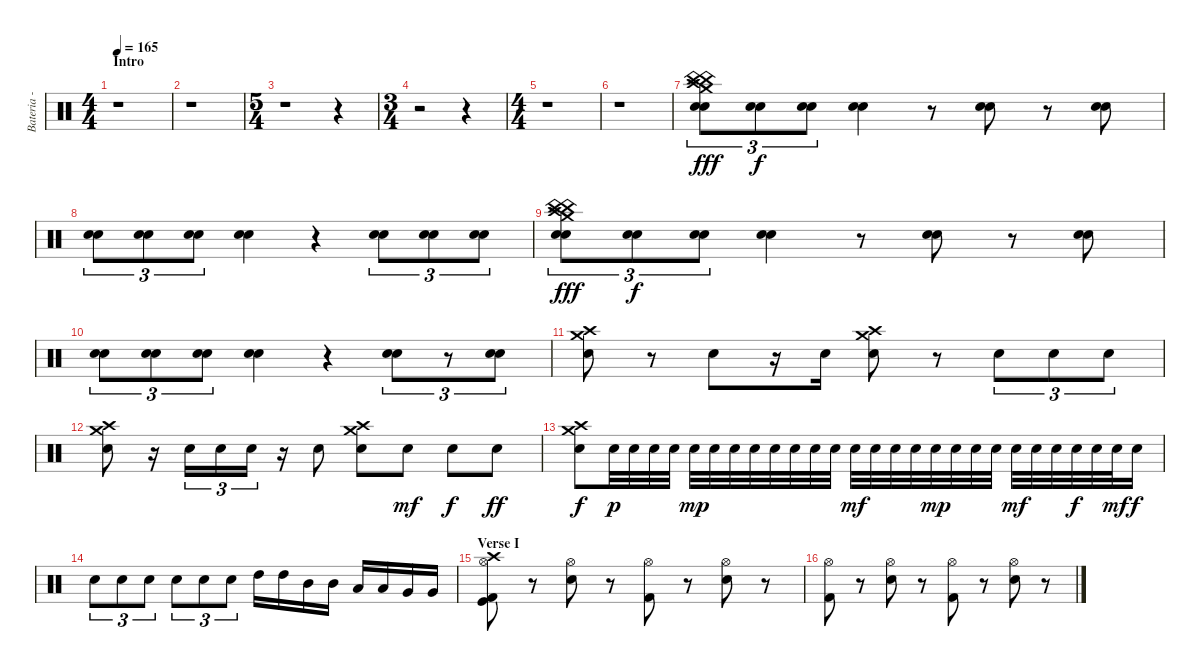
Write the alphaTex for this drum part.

\track ("Bateria - Drums" "Bateria - ") {instrument percussion}
\staff {score}
\articulation defaults
\ts (4 4)
\section ("" "Intro")
\tempo 165
\clef neutral
\ks c
r.1{dy fff} |
r.1 |
\ts (5 4)
r.1 r.4 |
\ts (3 4)
r.2 r.4 |
\ts (4 4)
r.1 |
r.1 |
("China (hit)" "China (hit)" "Crash high (hit)" "Crash medium (hit)" "Snare (hit) 2" "Electric Snare (hit)").8{tu (3 2)} ("Snare (hit) 2" "Electric Snare (hit)").8{tu (3 2) dy f} ("Snare (hit) 2" "Electric Snare (hit)").8{tu (3 2)} ("Snare (hit) 2" "Electric Snare (hit)").4 r.8 ("Snare (hit) 2" "Electric Snare (hit)").8 r.8 ("Snare (hit) 2" "Electric Snare (hit)").8 |
("Snare (hit) 2" "Electric Snare (hit)").8{tu (3 2)} ("Snare (hit) 2" "Electric Snare (hit)").8{tu (3 2)} ("Snare (hit) 2" "Electric Snare (hit)").8{tu (3 2)} ("Snare (hit) 2" "Electric Snare (hit)").4 r.4 ("Snare (hit) 2" "Electric Snare (hit)").8{tu (3 2)} ("Snare (hit) 2" "Electric Snare (hit)").8{tu (3 2)} ("Snare (hit) 2" "Electric Snare (hit)").8{tu (3 2)} |
("China (hit)" "China (hit)" "Crash high (hit)" "Crash medium (hit)" "Snare (hit) 2" "Electric Snare (hit)").8{tu (3 2) dy fff} ("Snare (hit) 2" "Electric Snare (hit)").8{tu (3 2) dy f} ("Snare (hit) 2" "Electric Snare (hit)").8{tu (3 2)} ("Snare (hit) 2" "Electric Snare (hit)").4 r.8 ("Snare (hit) 2" "Electric Snare (hit)").8 r.8 ("Snare (hit) 2" "Electric Snare (hit)").8 |
("Snare (hit) 2" "Electric Snare (hit)").8{tu (3 2)} ("Snare (hit) 2" "Electric Snare (hit)").8{tu (3 2)} ("Snare (hit) 2" "Electric Snare (hit)").8{tu (3 2)} ("Snare (hit) 2" "Electric Snare (hit)").4 r.4 ("Snare (hit) 2" "Electric Snare (hit)").8{tu (3 2)} r.8{tu (3 2)} ("Snare (hit) 2" "Electric Snare (hit)").8{tu (3 2)} |
("Crash medium (hit)" "Crash high (hit)" "Snare (hit) 2").8 r.8 "Snare (hit) 2".8 r.16 "Snare (hit) 2".16 ("Crash medium (hit)" "Crash high (hit)" "Snare (hit) 2").8 r.8 "Snare (hit) 2".8{tu (3 2)} "Snare (hit) 2".8{tu (3 2)} "Snare (hit) 2".8{tu (3 2)} |
("Crash medium (hit)" "Crash high (hit)" "Snare (hit) 2").8 r.16 "Electric Snare (hit)".16{tu (3 2)} "Electric Snare (hit)".16{tu (3 2)} "Electric Snare (hit)".16{tu (3 2)} r.16 "Electric Snare (hit)".8 ("Crash medium (hit)" "Crash high (hit)" "Snare (hit) 2").8 "Snare (hit) 2".8{dy mf} "Snare (hit) 2".8{dy f} "Snare (hit) 2".8{dy ff} |
("Crash medium (hit)" "Crash high (hit)" "Snare (hit) 2").8{dy f} "Snare (hit) 2".32{dy p} "Snare (hit) 2".32 "Snare (hit) 2".32 "Snare (hit) 2".32 "Snare (hit) 2".32{dy mp} "Snare (hit) 2".32 "Snare (hit) 2".32 "Snare (hit) 2".32 "Snare (hit) 2".32 "Snare (hit) 2".32 "Snare (hit) 2".32 "Snare (hit) 2".32 "Snare (hit) 2".32{dy mf} "Snare (hit) 2".32 "Snare (hit) 2".32 "Snare (hit) 2".32 "Snare (hit) 2".32{dy mp} "Snare (hit) 2".32 "Snare (hit) 2".32 "Snare (hit) 2".32 "Snare (hit) 2".32{dy mf} "Snare (hit) 2".32 "Snare (hit) 2".32 "Snare (hit) 2".32{dy f} "Snare (hit) 2".32 "Snare (hit) 2".32{dy mf} "Snare (hit) 2".16{dy f} |
"Electric Snare (hit)".8{tu (3 2)} "Electric Snare (hit)".8{tu (3 2)} "Electric Snare (hit)".8{tu (3 2)} "Electric Snare (hit)".8{tu (3 2)} "Electric Snare (hit)".8{tu (3 2)} "Electric Snare (hit)".8{tu (3 2)} "High Tom (hit)".16 "High Tom (hit)".16 "Mid Tom (hit)".16 "Mid Tom (hit)".16 "Low Tom (hit)".16 "Low Tom (hit)".16 "Very Low Tom (hit)".16 "Very Low Tom (hit)".16 |
\section ("" "Verse I")
("Hi-Hat (open)" "Crash high (hit)" "Kick (hit)" "Kick (hit) 2").8 r.8 ("Hi-Hat (open)" "Electric Snare (hit)").8 r.8 ("Hi-Hat (open)" "Kick (hit) 2").8 r.8 ("Hi-Hat (open)" "Electric Snare (hit)").8 r.8 |
("Hi-Hat (open)" "Kick (hit) 2").8 r.8 ("Hi-Hat (open)" "Electric Snare (hit)").8 r.8 ("Hi-Hat (open)" "Kick (hit) 2").8 r.8 ("Hi-Hat (open)" "Electric Snare (hit)").8 r.8
